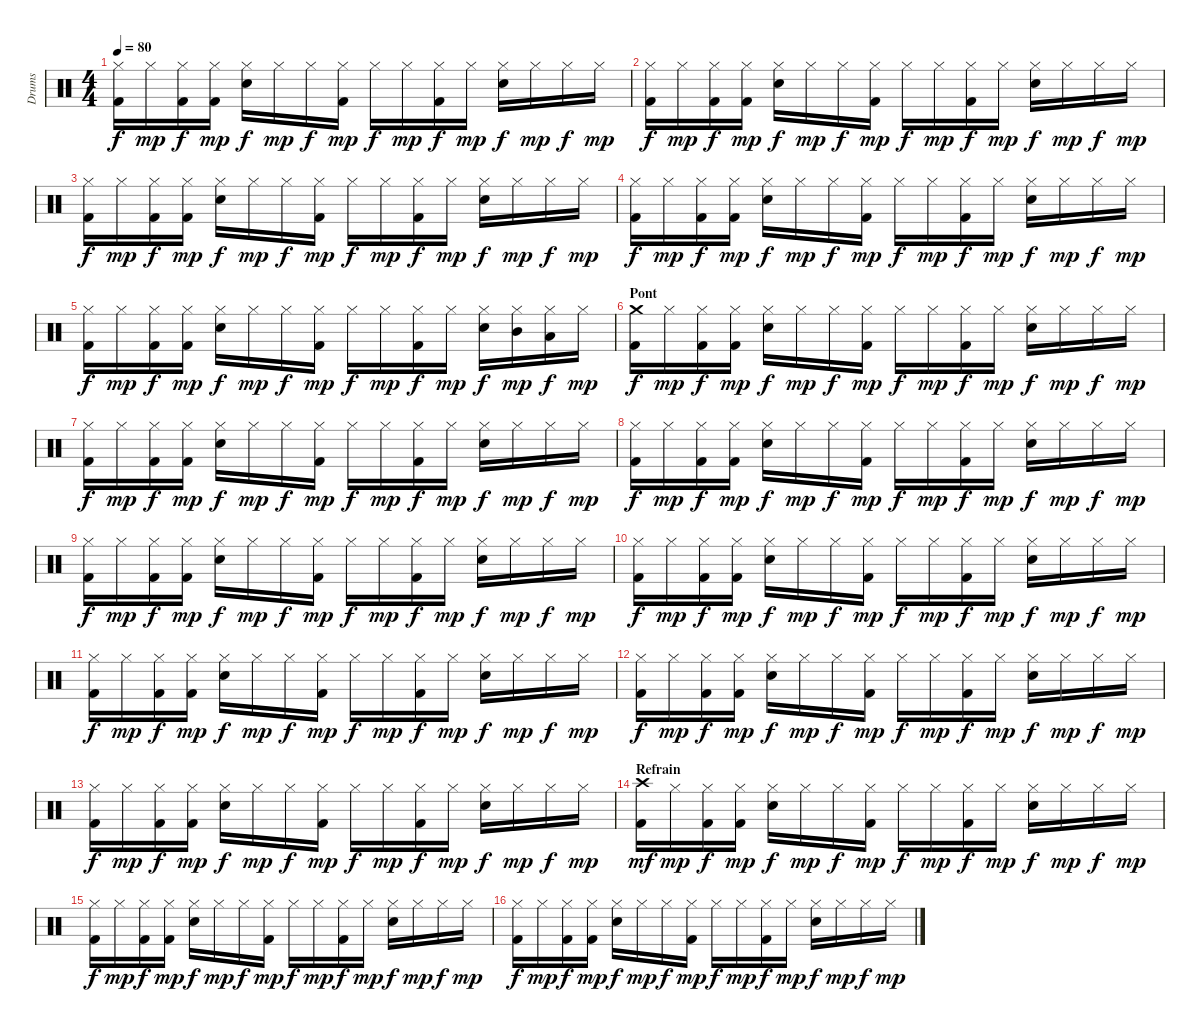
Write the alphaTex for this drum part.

\track ("Drums" "Drums") {instrument percussion}
\staff {score}
\articulation defaults
\ts (4 4)
\tempo 80
\clef neutral
\ks c
("Hi-Hat (closed)" "Kick (hit) 2").16{dy f} "Hi-Hat (closed)".16{dy mp} ("Hi-Hat (closed)" "Kick (hit) 2").16{dy f} ("Hi-Hat (closed)" "Kick (hit) 2").16{dy mp} ("Hi-Hat (closed)" "Electric Snare (hit)").16{dy f} "Hi-Hat (closed)".16{dy mp} "Hi-Hat (closed)".16{dy f} ("Hi-Hat (closed)" "Kick (hit) 2").16{dy mp} "Hi-Hat (closed)".16{dy f} "Hi-Hat (closed)".16{dy mp} ("Hi-Hat (closed)" "Kick (hit) 2").16{dy f} "Hi-Hat (closed)".16{dy mp} ("Hi-Hat (closed)" "Electric Snare (hit)").16{dy f} "Hi-Hat (closed)".16{dy mp} "Hi-Hat (closed)".16{dy f} "Hi-Hat (closed)".16{dy mp} |
("Hi-Hat (closed)" "Kick (hit) 2").16{dy f} "Hi-Hat (closed)".16{dy mp} ("Hi-Hat (closed)" "Kick (hit) 2").16{dy f} ("Hi-Hat (closed)" "Kick (hit) 2").16{dy mp} ("Hi-Hat (closed)" "Electric Snare (hit)").16{dy f} "Hi-Hat (closed)".16{dy mp} "Hi-Hat (closed)".16{dy f} ("Hi-Hat (closed)" "Kick (hit) 2").16{dy mp} "Hi-Hat (closed)".16{dy f} "Hi-Hat (closed)".16{dy mp} ("Hi-Hat (closed)" "Kick (hit) 2").16{dy f} "Hi-Hat (closed)".16{dy mp} ("Hi-Hat (closed)" "Electric Snare (hit)").16{dy f} "Hi-Hat (closed)".16{dy mp} "Hi-Hat (closed)".16{dy f} "Hi-Hat (closed)".16{dy mp} |
("Hi-Hat (closed)" "Kick (hit) 2").16{dy f} "Hi-Hat (closed)".16{dy mp} ("Hi-Hat (closed)" "Kick (hit) 2").16{dy f} ("Hi-Hat (closed)" "Kick (hit) 2").16{dy mp} ("Hi-Hat (closed)" "Electric Snare (hit)").16{dy f} "Hi-Hat (closed)".16{dy mp} "Hi-Hat (closed)".16{dy f} ("Hi-Hat (closed)" "Kick (hit) 2").16{dy mp} "Hi-Hat (closed)".16{dy f} "Hi-Hat (closed)".16{dy mp} ("Hi-Hat (closed)" "Kick (hit) 2").16{dy f} "Hi-Hat (closed)".16{dy mp} ("Hi-Hat (closed)" "Electric Snare (hit)").16{dy f} "Hi-Hat (closed)".16{dy mp} "Hi-Hat (closed)".16{dy f} "Hi-Hat (closed)".16{dy mp} |
("Hi-Hat (closed)" "Kick (hit) 2").16{dy f} "Hi-Hat (closed)".16{dy mp} ("Hi-Hat (closed)" "Kick (hit) 2").16{dy f} ("Hi-Hat (closed)" "Kick (hit) 2").16{dy mp} ("Hi-Hat (closed)" "Electric Snare (hit)").16{dy f} "Hi-Hat (closed)".16{dy mp} "Hi-Hat (closed)".16{dy f} ("Hi-Hat (closed)" "Kick (hit) 2").16{dy mp} "Hi-Hat (closed)".16{dy f} "Hi-Hat (closed)".16{dy mp} ("Hi-Hat (closed)" "Kick (hit) 2").16{dy f} "Hi-Hat (closed)".16{dy mp} ("Hi-Hat (closed)" "Electric Snare (hit)").16{dy f} "Hi-Hat (closed)".16{dy mp} "Hi-Hat (closed)".16{dy f} "Hi-Hat (closed)".16{dy mp} |
("Hi-Hat (closed)" "Kick (hit) 2").16{dy f} "Hi-Hat (closed)".16{dy mp} ("Hi-Hat (closed)" "Kick (hit) 2").16{dy f} ("Hi-Hat (closed)" "Kick (hit) 2").16{dy mp} ("Hi-Hat (closed)" "Electric Snare (hit)").16{dy f} "Hi-Hat (closed)".16{dy mp} "Hi-Hat (closed)".16{dy f} ("Hi-Hat (closed)" "Kick (hit) 2").16{dy mp} "Hi-Hat (closed)".16{dy f} "Hi-Hat (closed)".16{dy mp} ("Hi-Hat (closed)" "Kick (hit) 2").16{dy f} "Hi-Hat (closed)".16{dy mp} ("Hi-Hat (closed)" "Electric Snare (hit)").16{dy f} ("Hi-Hat (closed)" "Mid Tom (hit)").16{dy mp} ("Hi-Hat (closed)" "Low Tom (hit)").16{dy f} "Hi-Hat (closed)".16{dy mp} |
\section ("" "Pont")
("Crash medium (hit)" "Kick (hit) 2").16{dy f} "Hi-Hat (closed)".16{dy mp} ("Hi-Hat (closed)" "Kick (hit) 2").16{dy f} ("Hi-Hat (closed)" "Kick (hit) 2").16{dy mp} ("Hi-Hat (closed)" "Electric Snare (hit)").16{dy f} "Hi-Hat (closed)".16{dy mp} "Hi-Hat (closed)".16{dy f} ("Hi-Hat (closed)" "Kick (hit) 2").16{dy mp} "Hi-Hat (closed)".16{dy f} "Hi-Hat (closed)".16{dy mp} ("Hi-Hat (closed)" "Kick (hit) 2").16{dy f} "Hi-Hat (closed)".16{dy mp} ("Hi-Hat (closed)" "Electric Snare (hit)").16{dy f} "Hi-Hat (closed)".16{dy mp} "Hi-Hat (closed)".16{dy f} "Hi-Hat (closed)".16{dy mp} |
("Hi-Hat (closed)" "Kick (hit) 2").16{dy f} "Hi-Hat (closed)".16{dy mp} ("Hi-Hat (closed)" "Kick (hit) 2").16{dy f} ("Hi-Hat (closed)" "Kick (hit) 2").16{dy mp} ("Hi-Hat (closed)" "Electric Snare (hit)").16{dy f} "Hi-Hat (closed)".16{dy mp} "Hi-Hat (closed)".16{dy f} ("Hi-Hat (closed)" "Kick (hit) 2").16{dy mp} "Hi-Hat (closed)".16{dy f} "Hi-Hat (closed)".16{dy mp} ("Hi-Hat (closed)" "Kick (hit) 2").16{dy f} "Hi-Hat (closed)".16{dy mp} ("Hi-Hat (closed)" "Electric Snare (hit)").16{dy f} "Hi-Hat (closed)".16{dy mp} "Hi-Hat (closed)".16{dy f} "Hi-Hat (closed)".16{dy mp} |
("Hi-Hat (closed)" "Kick (hit) 2").16{dy f} "Hi-Hat (closed)".16{dy mp} ("Hi-Hat (closed)" "Kick (hit) 2").16{dy f} ("Hi-Hat (closed)" "Kick (hit) 2").16{dy mp} ("Hi-Hat (closed)" "Electric Snare (hit)").16{dy f} "Hi-Hat (closed)".16{dy mp} "Hi-Hat (closed)".16{dy f} ("Hi-Hat (closed)" "Kick (hit) 2").16{dy mp} "Hi-Hat (closed)".16{dy f} "Hi-Hat (closed)".16{dy mp} ("Hi-Hat (closed)" "Kick (hit) 2").16{dy f} "Hi-Hat (closed)".16{dy mp} ("Hi-Hat (closed)" "Electric Snare (hit)").16{dy f} "Hi-Hat (closed)".16{dy mp} "Hi-Hat (closed)".16{dy f} "Hi-Hat (closed)".16{dy mp} |
("Hi-Hat (closed)" "Kick (hit) 2").16{dy f} "Hi-Hat (closed)".16{dy mp} ("Hi-Hat (closed)" "Kick (hit) 2").16{dy f} ("Hi-Hat (closed)" "Kick (hit) 2").16{dy mp} ("Hi-Hat (closed)" "Electric Snare (hit)").16{dy f} "Hi-Hat (closed)".16{dy mp} "Hi-Hat (closed)".16{dy f} ("Hi-Hat (closed)" "Kick (hit) 2").16{dy mp} "Hi-Hat (closed)".16{dy f} "Hi-Hat (closed)".16{dy mp} ("Hi-Hat (closed)" "Kick (hit) 2").16{dy f} "Hi-Hat (closed)".16{dy mp} ("Hi-Hat (closed)" "Electric Snare (hit)").16{dy f} "Hi-Hat (closed)".16{dy mp} "Hi-Hat (closed)".16{dy f} "Hi-Hat (closed)".16{dy mp} |
("Hi-Hat (closed)" "Kick (hit) 2").16{dy f} "Hi-Hat (closed)".16{dy mp} ("Hi-Hat (closed)" "Kick (hit) 2").16{dy f} ("Hi-Hat (closed)" "Kick (hit) 2").16{dy mp} ("Hi-Hat (closed)" "Electric Snare (hit)").16{dy f} "Hi-Hat (closed)".16{dy mp} "Hi-Hat (closed)".16{dy f} ("Hi-Hat (closed)" "Kick (hit) 2").16{dy mp} "Hi-Hat (closed)".16{dy f} "Hi-Hat (closed)".16{dy mp} ("Hi-Hat (closed)" "Kick (hit) 2").16{dy f} "Hi-Hat (closed)".16{dy mp} ("Hi-Hat (closed)" "Electric Snare (hit)").16{dy f} "Hi-Hat (closed)".16{dy mp} "Hi-Hat (closed)".16{dy f} "Hi-Hat (closed)".16{dy mp} |
("Hi-Hat (closed)" "Kick (hit) 2").16{dy f} "Hi-Hat (closed)".16{dy mp} ("Hi-Hat (closed)" "Kick (hit) 2").16{dy f} ("Hi-Hat (closed)" "Kick (hit) 2").16{dy mp} ("Hi-Hat (closed)" "Electric Snare (hit)").16{dy f} "Hi-Hat (closed)".16{dy mp} "Hi-Hat (closed)".16{dy f} ("Hi-Hat (closed)" "Kick (hit) 2").16{dy mp} "Hi-Hat (closed)".16{dy f} "Hi-Hat (closed)".16{dy mp} ("Hi-Hat (closed)" "Kick (hit) 2").16{dy f} "Hi-Hat (closed)".16{dy mp} ("Hi-Hat (closed)" "Electric Snare (hit)").16{dy f} "Hi-Hat (closed)".16{dy mp} "Hi-Hat (closed)".16{dy f} "Hi-Hat (closed)".16{dy mp} |
("Hi-Hat (closed)" "Kick (hit) 2").16{dy f} "Hi-Hat (closed)".16{dy mp} ("Hi-Hat (closed)" "Kick (hit) 2").16{dy f} ("Hi-Hat (closed)" "Kick (hit) 2").16{dy mp} ("Hi-Hat (closed)" "Electric Snare (hit)").16{dy f} "Hi-Hat (closed)".16{dy mp} "Hi-Hat (closed)".16{dy f} ("Hi-Hat (closed)" "Kick (hit) 2").16{dy mp} "Hi-Hat (closed)".16{dy f} "Hi-Hat (closed)".16{dy mp} ("Hi-Hat (closed)" "Kick (hit) 2").16{dy f} "Hi-Hat (closed)".16{dy mp} ("Hi-Hat (closed)" "Electric Snare (hit)").16{dy f} "Hi-Hat (closed)".16{dy mp} "Hi-Hat (closed)".16{dy f} "Hi-Hat (closed)".16{dy mp} |
("Hi-Hat (closed)" "Kick (hit) 2").16{dy f} "Hi-Hat (closed)".16{dy mp} ("Hi-Hat (closed)" "Kick (hit) 2").16{dy f} ("Hi-Hat (closed)" "Kick (hit) 2").16{dy mp} ("Hi-Hat (closed)" "Electric Snare (hit)").16{dy f} "Hi-Hat (closed)".16{dy mp} "Hi-Hat (closed)".16{dy f} ("Hi-Hat (closed)" "Kick (hit) 2").16{dy mp} "Hi-Hat (closed)".16{dy f} "Hi-Hat (closed)".16{dy mp} ("Hi-Hat (closed)" "Kick (hit) 2").16{dy f} "Hi-Hat (closed)".16{dy mp} ("Hi-Hat (closed)" "Electric Snare (hit)").16{dy f} "Hi-Hat (closed)".16{dy mp} "Hi-Hat (closed)".16{dy f} "Hi-Hat (closed)".16{dy mp} |
\section ("" "Refrain")
("Crash high (hit)" "Kick (hit) 2").16{dy mf} "Hi-Hat (closed)".16{dy mp} ("Hi-Hat (closed)" "Kick (hit) 2").16{dy f} ("Hi-Hat (closed)" "Kick (hit) 2").16{dy mp} ("Hi-Hat (closed)" "Electric Snare (hit)").16{dy f} "Hi-Hat (closed)".16{dy mp} "Hi-Hat (closed)".16{dy f} ("Hi-Hat (closed)" "Kick (hit) 2").16{dy mp} "Hi-Hat (closed)".16{dy f} "Hi-Hat (closed)".16{dy mp} ("Hi-Hat (closed)" "Kick (hit) 2").16{dy f} "Hi-Hat (closed)".16{dy mp} ("Hi-Hat (closed)" "Electric Snare (hit)").16{dy f} "Hi-Hat (closed)".16{dy mp} "Hi-Hat (closed)".16{dy f} "Hi-Hat (closed)".16{dy mp} |
("Hi-Hat (closed)" "Kick (hit) 2").16{dy f} "Hi-Hat (closed)".16{dy mp} ("Hi-Hat (closed)" "Kick (hit) 2").16{dy f} ("Hi-Hat (closed)" "Kick (hit) 2").16{dy mp} ("Hi-Hat (closed)" "Electric Snare (hit)").16{dy f} "Hi-Hat (closed)".16{dy mp} "Hi-Hat (closed)".16{dy f} ("Hi-Hat (closed)" "Kick (hit) 2").16{dy mp} "Hi-Hat (closed)".16{dy f} "Hi-Hat (closed)".16{dy mp} ("Hi-Hat (closed)" "Kick (hit) 2").16{dy f} "Hi-Hat (closed)".16{dy mp} ("Hi-Hat (closed)" "Electric Snare (hit)").16{dy f} "Hi-Hat (closed)".16{dy mp} "Hi-Hat (closed)".16{dy f} "Hi-Hat (closed)".16{dy mp} |
("Hi-Hat (closed)" "Kick (hit) 2").16{dy f} "Hi-Hat (closed)".16{dy mp} ("Hi-Hat (closed)" "Kick (hit) 2").16{dy f} ("Hi-Hat (closed)" "Kick (hit) 2").16{dy mp} ("Hi-Hat (closed)" "Electric Snare (hit)").16{dy f} "Hi-Hat (closed)".16{dy mp} "Hi-Hat (closed)".16{dy f} ("Hi-Hat (closed)" "Kick (hit) 2").16{dy mp} "Hi-Hat (closed)".16{dy f} "Hi-Hat (closed)".16{dy mp} ("Hi-Hat (closed)" "Kick (hit) 2").16{dy f} "Hi-Hat (closed)".16{dy mp} ("Hi-Hat (closed)" "Electric Snare (hit)").16{dy f} "Hi-Hat (closed)".16{dy mp} "Hi-Hat (closed)".16{dy f} "Hi-Hat (closed)".16{dy mp}
